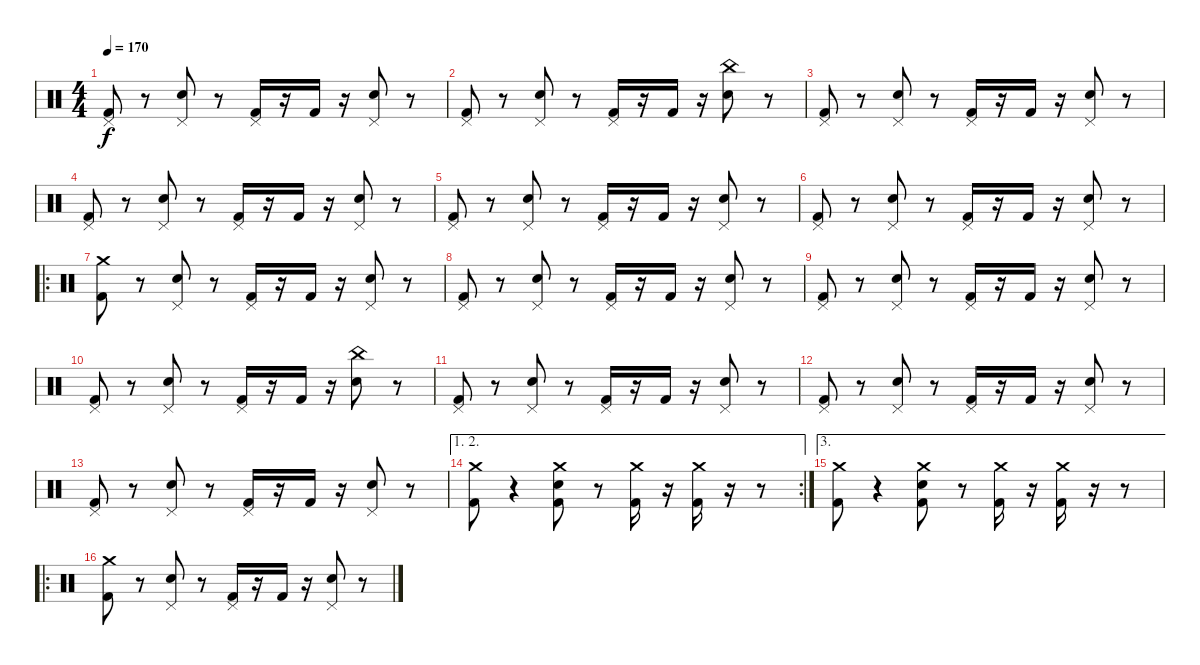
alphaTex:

\track "" {instrument percussion}
\staff {score}
\articulation defaults
\ts (4 4)
\tempo 170
\clef neutral
\ks c
("Kick (hit) 2" "Pedal Hi-Hat (hit)").8{dy f} r.8 ("Electric Snare (hit)" "Pedal Hi-Hat (hit)").8 r.8 ("Kick (hit) 2" "Pedal Hi-Hat (hit)").16 r.16 "Kick (hit) 2".16 r.16 ("Electric Snare (hit)" "Pedal Hi-Hat (hit)").8 r.8 |
("Kick (hit) 2" "Pedal Hi-Hat (hit)").8 r.8 ("Electric Snare (hit)" "Pedal Hi-Hat (hit)").8 r.8 ("Kick (hit) 2" "Pedal Hi-Hat (hit)").16 r.16 "Kick (hit) 2".16 r.16 ("Electric Snare (hit)" "China (hit)").8 r.8 |
("Kick (hit) 2" "Pedal Hi-Hat (hit)").8 r.8 ("Electric Snare (hit)" "Pedal Hi-Hat (hit)").8 r.8 ("Kick (hit) 2" "Pedal Hi-Hat (hit)").16 r.16 "Kick (hit) 2".16 r.16 ("Electric Snare (hit)" "Pedal Hi-Hat (hit)").8 r.8 |
("Kick (hit) 2" "Pedal Hi-Hat (hit)").8 r.8 ("Electric Snare (hit)" "Pedal Hi-Hat (hit)").8 r.8 ("Kick (hit) 2" "Pedal Hi-Hat (hit)").16 r.16 "Kick (hit) 2".16 r.16 ("Electric Snare (hit)" "Pedal Hi-Hat (hit)").8 r.8 |
("Kick (hit) 2" "Pedal Hi-Hat (hit)").8 r.8 ("Electric Snare (hit)" "Pedal Hi-Hat (hit)").8 r.8 ("Kick (hit) 2" "Pedal Hi-Hat (hit)").16 r.16 "Kick (hit) 2".16 r.16 ("Electric Snare (hit)" "Pedal Hi-Hat (hit)").8 r.8 |
("Kick (hit) 2" "Pedal Hi-Hat (hit)").8 r.8 ("Electric Snare (hit)" "Pedal Hi-Hat (hit)").8 r.8 ("Kick (hit) 2" "Pedal Hi-Hat (hit)").16 r.16 "Kick (hit) 2".16 r.16 ("Electric Snare (hit)" "Pedal Hi-Hat (hit)").8 r.8 |
\ro
("Kick (hit) 2" "Crash medium (hit)").8 r.8 ("Electric Snare (hit)" "Pedal Hi-Hat (hit)").8 r.8 ("Kick (hit) 2" "Pedal Hi-Hat (hit)").16 r.16 "Kick (hit) 2".16 r.16 ("Electric Snare (hit)" "Pedal Hi-Hat (hit)").8 r.8 |
("Kick (hit) 2" "Pedal Hi-Hat (hit)").8 r.8 ("Electric Snare (hit)" "Pedal Hi-Hat (hit)").8 r.8 ("Kick (hit) 2" "Pedal Hi-Hat (hit)").16 r.16 "Kick (hit) 2".16 r.16 ("Electric Snare (hit)" "Pedal Hi-Hat (hit)").8 r.8 |
("Kick (hit) 2" "Pedal Hi-Hat (hit)").8 r.8 ("Electric Snare (hit)" "Pedal Hi-Hat (hit)").8 r.8 ("Kick (hit) 2" "Pedal Hi-Hat (hit)").16 r.16 "Kick (hit) 2".16 r.16 ("Electric Snare (hit)" "Pedal Hi-Hat (hit)").8 r.8 |
("Kick (hit) 2" "Pedal Hi-Hat (hit)").8 r.8 ("Electric Snare (hit)" "Pedal Hi-Hat (hit)").8 r.8 ("Kick (hit) 2" "Pedal Hi-Hat (hit)").16 r.16 "Kick (hit) 2".16 r.16 ("Electric Snare (hit)" "China (hit)").8 r.8 |
("Kick (hit) 2" "Pedal Hi-Hat (hit)").8 r.8 ("Electric Snare (hit)" "Pedal Hi-Hat (hit)").8 r.8 ("Kick (hit) 2" "Pedal Hi-Hat (hit)").16 r.16 "Kick (hit) 2".16 r.16 ("Electric Snare (hit)" "Pedal Hi-Hat (hit)").8 r.8 |
("Kick (hit) 2" "Pedal Hi-Hat (hit)").8 r.8 ("Electric Snare (hit)" "Pedal Hi-Hat (hit)").8 r.8 ("Kick (hit) 2" "Pedal Hi-Hat (hit)").16 r.16 "Kick (hit) 2".16 r.16 ("Electric Snare (hit)" "Pedal Hi-Hat (hit)").8 r.8 |
("Kick (hit) 2" "Pedal Hi-Hat (hit)").8 r.8 ("Electric Snare (hit)" "Pedal Hi-Hat (hit)").8 r.8 ("Kick (hit) 2" "Pedal Hi-Hat (hit)").16 r.16 "Kick (hit) 2".16 r.16 ("Electric Snare (hit)" "Pedal Hi-Hat (hit)").8 r.8 |
\ae (1 2)
\rc 2
("Kick (hit) 2" "Crash medium (hit)").8 r.4 ("Electric Snare (hit)" "Crash medium (hit)" "Kick (hit) 2").8 r.8 ("Kick (hit) 2" "Crash medium (hit)").16 r.16 ("Kick (hit) 2" "Crash medium (hit)").16 r.16 r.8 |
\ae 3
("Kick (hit) 2" "Crash medium (hit)").8 r.4 ("Electric Snare (hit)" "Crash medium (hit)" "Kick (hit) 2").8 r.8 ("Kick (hit) 2" "Crash medium (hit)").16 r.16 ("Kick (hit) 2" "Crash medium (hit)").16 r.16 r.8 |
\ro
("Kick (hit) 2" "Crash medium (hit)").8 r.8 ("Electric Snare (hit)" "Pedal Hi-Hat (hit)").8 r.8 ("Kick (hit) 2" "Pedal Hi-Hat (hit)").16 r.16 "Kick (hit) 2".16 r.16 ("Electric Snare (hit)" "Pedal Hi-Hat (hit)").8 r.8
